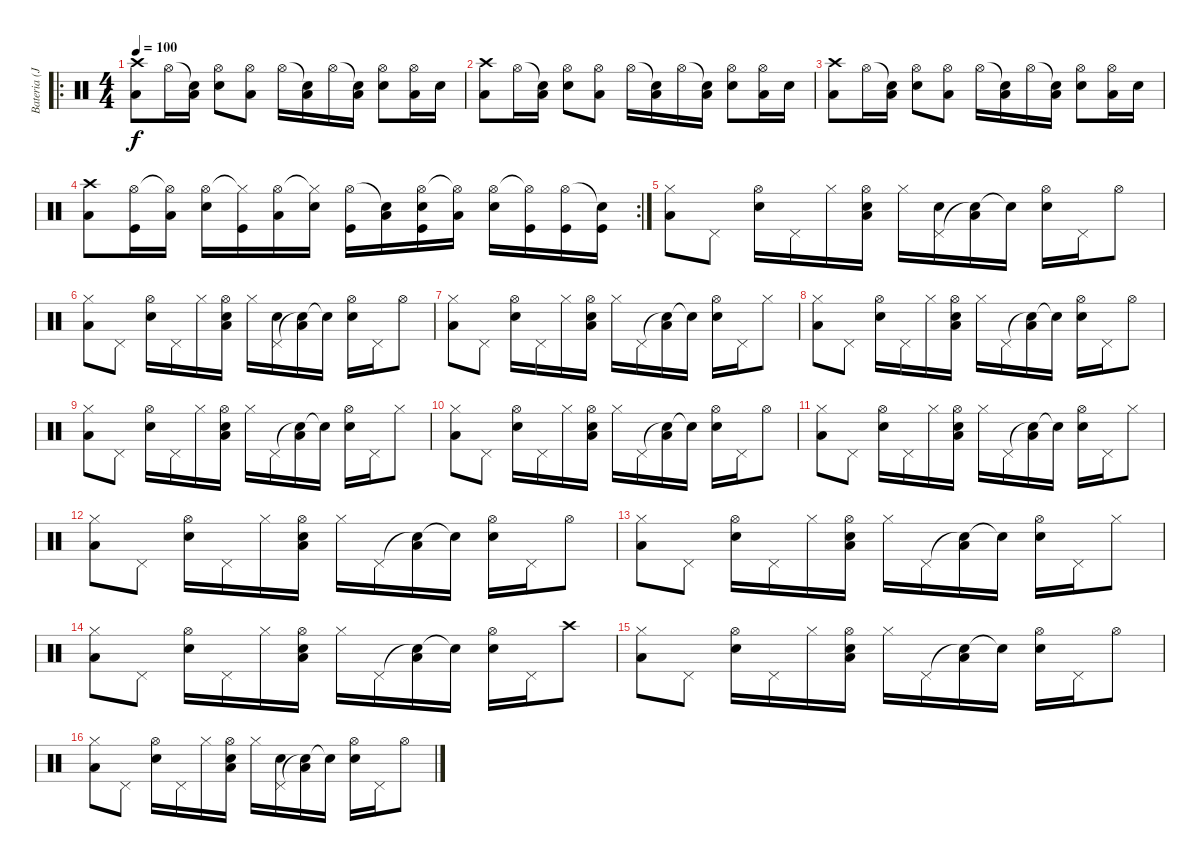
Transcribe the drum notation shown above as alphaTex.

\track ("Bateria (John)" "Bateria (J") {instrument percussion}
\staff {score}
\articulation defaults
\ro
\ts (4 4)
\tempo 100
\clef neutral
\ks c
("Crash high (hit)" "Low Tom (hit)").8{dy f} "Hi-Hat (open)".16 ("Snare (hit)"{t} "Low Tom (hit)").16 ("Hi-Hat (open)" "Electric Snare (hit)").8 ("Hi-Hat (open)" "Low Tom (hit)").8 "Hi-Hat (open)".16 ("Snare (hit)"{t} "Low Tom (hit)").16 "Hi-Hat (open)".16 ("Snare (hit)"{t} "Low Tom (hit)").16 ("Hi-Hat (open)" "Electric Snare (hit)").8 ("Hi-Hat (open)" "Low Tom (hit)").16 "Electric Snare (hit)".16 |
("Crash high (hit)" "Low Tom (hit)").8 "Hi-Hat (open)".16 ("Snare (hit)"{t} "Low Tom (hit)").16 ("Hi-Hat (open)" "Electric Snare (hit)").8 ("Hi-Hat (open)" "Low Tom (hit)").8 "Hi-Hat (open)".16 ("Snare (hit)"{t} "Low Tom (hit)").16 "Hi-Hat (open)".16 ("Snare (hit)"{t} "Low Tom (hit)").16 ("Hi-Hat (open)" "Electric Snare (hit)").8 ("Hi-Hat (open)" "Low Tom (hit)").16 "Electric Snare (hit)".16 |
("Crash high (hit)" "Low Tom (hit)").8 "Hi-Hat (open)".16 ("Snare (hit)"{t} "Low Tom (hit)").16 ("Hi-Hat (open)" "Electric Snare (hit)").8 ("Hi-Hat (open)" "Low Tom (hit)").8 "Hi-Hat (open)".16 ("Snare (hit)"{t} "Low Tom (hit)").16 "Hi-Hat (open)".16 ("Snare (hit)"{t} "Low Tom (hit)").16 ("Hi-Hat (open)" "Electric Snare (hit)").8 ("Hi-Hat (open)" "Low Tom (hit)").16 "Electric Snare (hit)".16 |
\rc 2
("Crash high (hit)" "Low Tom (hit)").8 ("Hi-Hat (open)" "Kick (hit)").16 ("Hi-Hat (open)"{t} "Low Tom (hit)").16 ("Hi-Hat (open)" "Electric Snare (hit)").16 ("Hi-Hat (closed)"{t} "Kick (hit)").16 ("Hi-Hat (open)" "Low Tom (hit)").16 ("Hi-Hat (closed)"{t} "Electric Snare (hit)").16 ("Hi-Hat (open)" "Kick (hit)").16 ("Snare (hit)"{t} "Low Tom (hit)").16 ("Hi-Hat (open)" "Kick (hit)" "Snare (hit)").16 ("Hi-Hat (open)"{t} "Low Tom (hit)").16 ("Hi-Hat (open)" "Electric Snare (hit)").16 ("Hi-Hat (open)"{t} "Kick (hit)").16 ("Hi-Hat (open)" "Kick (hit)").16 ("Snare (hit)"{t} "Kick (hit)").16 |
("Hi-Hat (closed)" "Low Tom (hit)").8 "Pedal Hi-Hat (hit)".8 ("Hi-Hat (open)" "Electric Snare (hit)").16 "Pedal Hi-Hat (hit)".16 "Hi-Hat (closed)".16 ("Hi-Hat (open)" "Electric Snare (hit)" "Low Tom (hit)").16 "Hi-Hat (closed)".16 ("Pedal Hi-Hat (hit)" "Electric Snare (hit)").16 ("Snare (hit)"{t} "Low Tom (hit)").16 "Snare (hit)"{t}.16 ("Hi-Hat (open)" "Electric Snare (hit)").16 "Pedal Hi-Hat (hit)".16 "Hi-Hat (open)".8 |
("Hi-Hat (closed)" "Low Tom (hit)").8 "Pedal Hi-Hat (hit)".8 ("Hi-Hat (open)" "Electric Snare (hit)").16 "Pedal Hi-Hat (hit)".16 "Hi-Hat (closed)".16 ("Hi-Hat (open)" "Electric Snare (hit)" "Low Tom (hit)").16 "Hi-Hat (closed)".16 ("Pedal Hi-Hat (hit)" "Electric Snare (hit)").16 ("Snare (hit)"{t} "Low Tom (hit)").16 "Snare (hit)"{t}.16 ("Hi-Hat (open)" "Electric Snare (hit)").16 "Pedal Hi-Hat (hit)".16 "Hi-Hat (open)".8 |
("Hi-Hat (closed)" "Low Tom (hit)").8 "Pedal Hi-Hat (hit)".8 ("Hi-Hat (open)" "Electric Snare (hit)").16 "Pedal Hi-Hat (hit)".16 "Hi-Hat (closed)".16 ("Hi-Hat (open)" "Electric Snare (hit)" "Low Tom (hit)").16 "Hi-Hat (closed)".16 "Pedal Hi-Hat (hit)".16 ("Snare (hit)"{t} "Low Tom (hit)").16 "Snare (hit)"{t}.16 ("Hi-Hat (open)" "Electric Snare (hit)").16 "Pedal Hi-Hat (hit)".16 "Hi-Hat (closed)".8 |
("Hi-Hat (closed)" "Low Tom (hit)").8 "Pedal Hi-Hat (hit)".8 ("Hi-Hat (open)" "Electric Snare (hit)").16 "Pedal Hi-Hat (hit)".16 "Hi-Hat (closed)".16 ("Hi-Hat (open)" "Electric Snare (hit)" "Low Tom (hit)").16 "Hi-Hat (closed)".16 "Pedal Hi-Hat (hit)".16 ("Snare (hit)"{t} "Low Tom (hit)").16 "Snare (hit)"{t}.16 ("Hi-Hat (open)" "Electric Snare (hit)").16 "Pedal Hi-Hat (hit)".16 "Hi-Hat (open)".8 |
("Hi-Hat (closed)" "Low Tom (hit)").8 "Pedal Hi-Hat (hit)".8 ("Hi-Hat (open)" "Electric Snare (hit)").16 "Pedal Hi-Hat (hit)".16 "Hi-Hat (closed)".16 ("Hi-Hat (open)" "Electric Snare (hit)" "Low Tom (hit)").16 "Hi-Hat (closed)".16 "Pedal Hi-Hat (hit)".16 ("Snare (hit)"{t} "Low Tom (hit)").16 "Snare (hit)"{t}.16 ("Hi-Hat (open)" "Electric Snare (hit)").16 "Pedal Hi-Hat (hit)".16 "Hi-Hat (closed)".8 |
("Hi-Hat (closed)" "Low Tom (hit)").8 "Pedal Hi-Hat (hit)".8 ("Hi-Hat (open)" "Electric Snare (hit)").16 "Pedal Hi-Hat (hit)".16 "Hi-Hat (closed)".16 ("Hi-Hat (open)" "Electric Snare (hit)" "Low Tom (hit)").16 "Hi-Hat (closed)".16 "Pedal Hi-Hat (hit)".16 ("Snare (hit)"{t} "Low Tom (hit)").16 "Snare (hit)"{t}.16 ("Hi-Hat (open)" "Electric Snare (hit)").16 "Pedal Hi-Hat (hit)".16 "Hi-Hat (open)".8 |
("Hi-Hat (closed)" "Low Tom (hit)").8 "Pedal Hi-Hat (hit)".8 ("Hi-Hat (open)" "Electric Snare (hit)").16 "Pedal Hi-Hat (hit)".16 "Hi-Hat (closed)".16 ("Hi-Hat (open)" "Electric Snare (hit)" "Low Tom (hit)").16 "Hi-Hat (closed)".16 "Pedal Hi-Hat (hit)".16 ("Snare (hit)"{t} "Low Tom (hit)").16 "Snare (hit)"{t}.16 ("Hi-Hat (open)" "Electric Snare (hit)").16 "Pedal Hi-Hat (hit)".16 "Hi-Hat (closed)".8 |
("Hi-Hat (closed)" "Low Tom (hit)").8 "Pedal Hi-Hat (hit)".8 ("Hi-Hat (open)" "Electric Snare (hit)").16 "Pedal Hi-Hat (hit)".16 "Hi-Hat (closed)".16 ("Hi-Hat (open)" "Electric Snare (hit)" "Low Tom (hit)").16 "Hi-Hat (closed)".16 "Pedal Hi-Hat (hit)".16 ("Snare (hit)"{t} "Low Tom (hit)").16 "Snare (hit)"{t}.16 ("Hi-Hat (open)" "Electric Snare (hit)").16 "Pedal Hi-Hat (hit)".16 "Hi-Hat (open)".8 |
("Hi-Hat (closed)" "Low Tom (hit)").8 "Pedal Hi-Hat (hit)".8 ("Hi-Hat (open)" "Electric Snare (hit)").16 "Pedal Hi-Hat (hit)".16 "Hi-Hat (closed)".16 ("Hi-Hat (open)" "Electric Snare (hit)" "Low Tom (hit)").16 "Hi-Hat (closed)".16 "Pedal Hi-Hat (hit)".16 ("Snare (hit)"{t} "Low Tom (hit)").16 "Snare (hit)"{t}.16 ("Hi-Hat (open)" "Electric Snare (hit)").16 "Pedal Hi-Hat (hit)".16 "Hi-Hat (closed)".8 |
("Hi-Hat (closed)" "Low Tom (hit)").8 "Pedal Hi-Hat (hit)".8 ("Hi-Hat (open)" "Electric Snare (hit)").16 "Pedal Hi-Hat (hit)".16 "Hi-Hat (closed)".16 ("Hi-Hat (open)" "Electric Snare (hit)" "Low Tom (hit)").16 "Hi-Hat (closed)".16 "Pedal Hi-Hat (hit)".16 ("Snare (hit)"{t} "Low Tom (hit)").16 "Snare (hit)"{t}.16 ("Hi-Hat (open)" "Electric Snare (hit)").16 "Pedal Hi-Hat (hit)".16 "Crash high (hit)".8 |
("Hi-Hat (closed)" "Low Tom (hit)").8 "Pedal Hi-Hat (hit)".8 ("Hi-Hat (open)" "Electric Snare (hit)").16 "Pedal Hi-Hat (hit)".16 "Hi-Hat (closed)".16 ("Hi-Hat (open)" "Electric Snare (hit)" "Low Tom (hit)").16 "Hi-Hat (closed)".16 "Pedal Hi-Hat (hit)".16 ("Snare (hit)"{t} "Low Tom (hit)").16 "Snare (hit)"{t}.16 ("Hi-Hat (open)" "Electric Snare (hit)").16 "Pedal Hi-Hat (hit)".16 "Hi-Hat (open)".8 |
("Hi-Hat (closed)" "Low Tom (hit)").8 "Pedal Hi-Hat (hit)".8 ("Hi-Hat (open)" "Electric Snare (hit)").16 "Pedal Hi-Hat (hit)".16 "Hi-Hat (closed)".16 ("Hi-Hat (open)" "Electric Snare (hit)" "Low Tom (hit)").16 "Hi-Hat (closed)".16 ("Pedal Hi-Hat (hit)" "Electric Snare (hit)").16 ("Snare (hit)"{t} "Low Tom (hit)").16 "Snare (hit)"{t}.16 ("Hi-Hat (open)" "Electric Snare (hit)").16 "Pedal Hi-Hat (hit)".16 "Hi-Hat (open)".8
